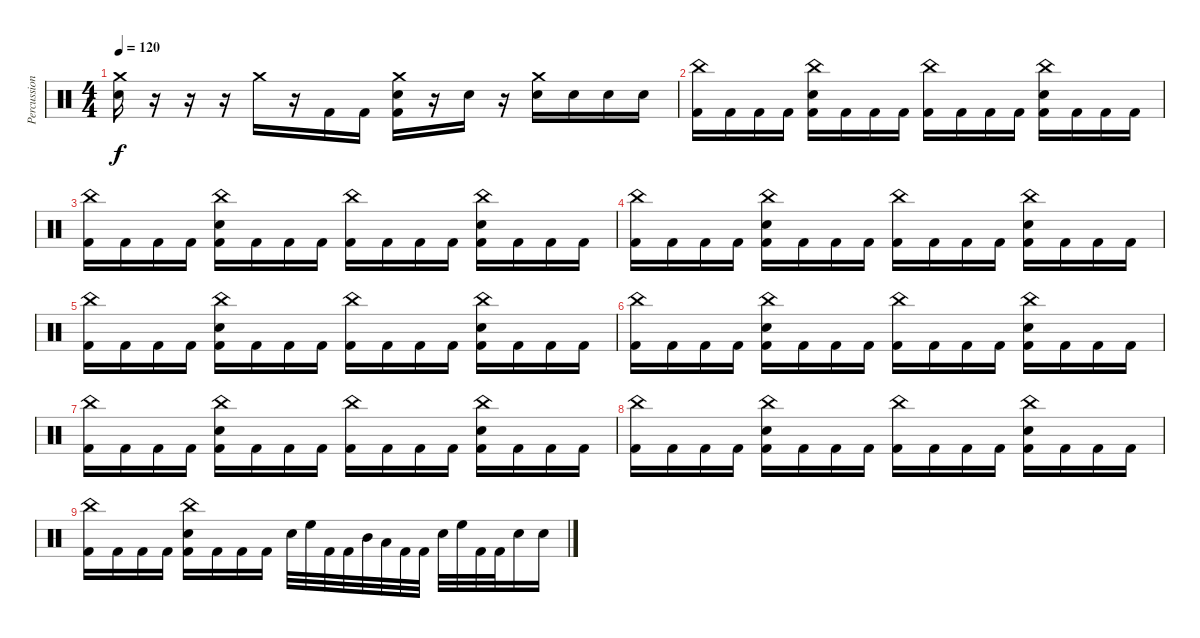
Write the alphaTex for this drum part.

\track ("Percussion" "Percussion") {instrument percussion}
\staff {score}
\articulation defaults
\ts (4 4)
\tempo 120
\clef neutral
\ks c
("Crash medium (hit)" "Electric Snare (hit)").16{dy f} r.16 r.16 r.16 "Crash medium (hit)".16 r.16 "Kick (hit) 2".16 "Kick (hit) 2".16 ("Crash medium (hit)" "Electric Snare (hit)" "Kick (hit) 2").16 r.16 "Electric Snare (hit)".16 r.16 ("Crash medium (hit)" "Electric Snare (hit)").16 "Electric Snare (hit)".16 "Electric Snare (hit)".16 "Electric Snare (hit)".16 |
("China (hit)" "Kick (hit) 2").16 "Kick (hit) 2".16 "Kick (hit) 2".16 "Kick (hit) 2".16 ("China (hit)" "Electric Snare (hit)" "Kick (hit) 2").16 "Kick (hit) 2".16 "Kick (hit) 2".16 "Kick (hit) 2".16 ("China (hit)" "Kick (hit) 2").16 "Kick (hit) 2".16 "Kick (hit) 2".16 "Kick (hit) 2".16 ("China (hit)" "Electric Snare (hit)" "Kick (hit) 2").16 "Kick (hit) 2".16 "Kick (hit) 2".16 "Kick (hit) 2".16 |
("China (hit)" "Kick (hit) 2").16 "Kick (hit) 2".16 "Kick (hit) 2".16 "Kick (hit) 2".16 ("China (hit)" "Electric Snare (hit)" "Kick (hit) 2").16 "Kick (hit) 2".16 "Kick (hit) 2".16 "Kick (hit) 2".16 ("China (hit)" "Kick (hit) 2").16 "Kick (hit) 2".16 "Kick (hit) 2".16 "Kick (hit) 2".16 ("China (hit)" "Electric Snare (hit)" "Kick (hit) 2").16 "Kick (hit) 2".16 "Kick (hit) 2".16 "Kick (hit) 2".16 |
("China (hit)" "Kick (hit) 2").16 "Kick (hit) 2".16 "Kick (hit) 2".16 "Kick (hit) 2".16 ("China (hit)" "Electric Snare (hit)" "Kick (hit) 2").16 "Kick (hit) 2".16 "Kick (hit) 2".16 "Kick (hit) 2".16 ("China (hit)" "Kick (hit) 2").16 "Kick (hit) 2".16 "Kick (hit) 2".16 "Kick (hit) 2".16 ("China (hit)" "Electric Snare (hit)" "Kick (hit) 2").16 "Kick (hit) 2".16 "Kick (hit) 2".16 "Kick (hit) 2".16 |
("China (hit)" "Kick (hit) 2").16 "Kick (hit) 2".16 "Kick (hit) 2".16 "Kick (hit) 2".16 ("China (hit)" "Electric Snare (hit)" "Kick (hit) 2").16 "Kick (hit) 2".16 "Kick (hit) 2".16 "Kick (hit) 2".16 ("China (hit)" "Kick (hit) 2").16 "Kick (hit) 2".16 "Kick (hit) 2".16 "Kick (hit) 2".16 ("China (hit)" "Electric Snare (hit)" "Kick (hit) 2").16 "Kick (hit) 2".16 "Kick (hit) 2".16 "Kick (hit) 2".16 |
("China (hit)" "Kick (hit) 2").16 "Kick (hit) 2".16 "Kick (hit) 2".16 "Kick (hit) 2".16 ("China (hit)" "Electric Snare (hit)" "Kick (hit) 2").16 "Kick (hit) 2".16 "Kick (hit) 2".16 "Kick (hit) 2".16 ("China (hit)" "Kick (hit) 2").16 "Kick (hit) 2".16 "Kick (hit) 2".16 "Kick (hit) 2".16 ("China (hit)" "Electric Snare (hit)" "Kick (hit) 2").16 "Kick (hit) 2".16 "Kick (hit) 2".16 "Kick (hit) 2".16 |
("China (hit)" "Kick (hit) 2").16 "Kick (hit) 2".16 "Kick (hit) 2".16 "Kick (hit) 2".16 ("China (hit)" "Electric Snare (hit)" "Kick (hit) 2").16 "Kick (hit) 2".16 "Kick (hit) 2".16 "Kick (hit) 2".16 ("China (hit)" "Kick (hit) 2").16 "Kick (hit) 2".16 "Kick (hit) 2".16 "Kick (hit) 2".16 ("China (hit)" "Electric Snare (hit)" "Kick (hit) 2").16 "Kick (hit) 2".16 "Kick (hit) 2".16 "Kick (hit) 2".16 |
("China (hit)" "Kick (hit) 2").16 "Kick (hit) 2".16 "Kick (hit) 2".16 "Kick (hit) 2".16 ("China (hit)" "Electric Snare (hit)" "Kick (hit) 2").16 "Kick (hit) 2".16 "Kick (hit) 2".16 "Kick (hit) 2".16 ("China (hit)" "Kick (hit) 2").16 "Kick (hit) 2".16 "Kick (hit) 2".16 "Kick (hit) 2".16 ("China (hit)" "Electric Snare (hit)" "Kick (hit) 2").16 "Kick (hit) 2".16 "Kick (hit) 2".16 "Kick (hit) 2".16 |
("China (hit)" "Kick (hit) 2").16 "Kick (hit) 2".16 "Kick (hit) 2".16 "Kick (hit) 2".16 ("China (hit)" "Electric Snare (hit)" "Kick (hit) 2").16 "Kick (hit) 2".16 "Kick (hit) 2".16 "Kick (hit) 2".16 "Electric Snare (hit)".32 "High Floor Tom (hit)".32 "Kick (hit) 2".32 "Kick (hit) 2".32 "Mid Tom (hit)".32 "Low Tom (hit)".32 "Kick (hit) 2".32 "Kick (hit) 2".32 "Electric Snare (hit)".32 "High Floor Tom (hit)".32 "Kick (hit) 2".32 "Kick (hit) 2".32 "Electric Snare (hit)".16 "Electric Snare (hit)".16
